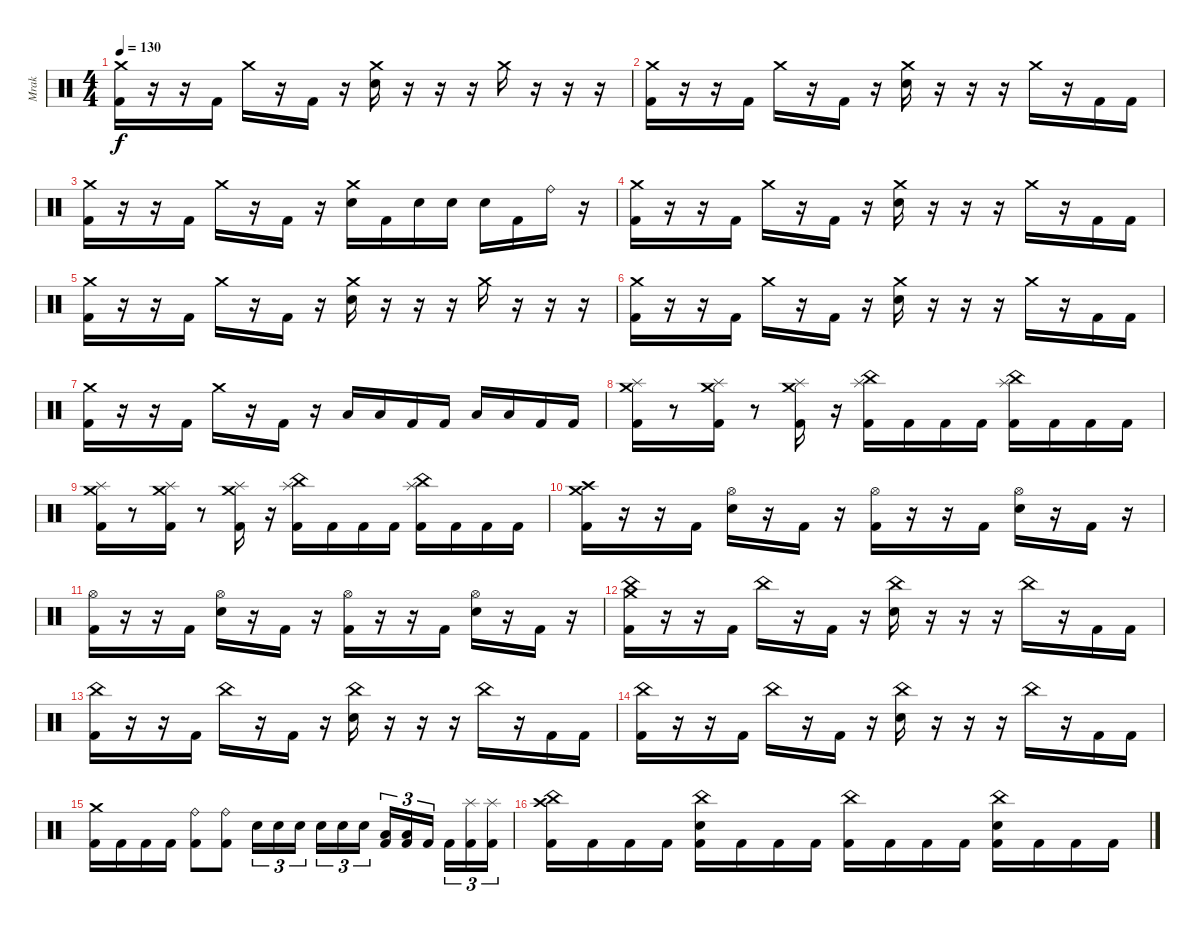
\track ("Mrak" "Mrak") {instrument percussion}
\staff {score}
\articulation defaults
\ts (4 4)
\tempo 130
\clef neutral
\ks c
("Crash medium (hit)" "Kick (hit) 2").16{dy f} r.16 r.16 "Kick (hit) 2".16 "Crash medium (hit)".16 r.16 "Kick (hit) 2".16 r.16 ("Crash medium (hit)" "Electric Snare (hit)").16 r.16 r.16 r.16 "Crash medium (hit)".16 r.16 r.16 r.16 |
("Crash medium (hit)" "Kick (hit) 2").16 r.16 r.16 "Kick (hit) 2".16 "Crash medium (hit)".16 r.16 "Kick (hit) 2".16 r.16 ("Crash medium (hit)" "Electric Snare (hit)").16 r.16 r.16 r.16 "Crash medium (hit)".16 r.16 "Kick (hit) 2".16 "Kick (hit) 2".16 |
("Crash medium (hit)" "Kick (hit) 2").16 r.16 r.16 "Kick (hit) 2".16 "Crash medium (hit)".16 r.16 "Kick (hit) 2".16 r.16 ("Crash medium (hit)" "Electric Snare (hit)").16 "Kick (hit) 2".16 "Electric Snare (hit)".16 "Electric Snare (hit)".16 "Electric Snare (hit)".16 "Kick (hit) 2".16 "Ride (bell)".16 r.16 |
("Crash medium (hit)" "Kick (hit) 2").16 r.16 r.16 "Kick (hit) 2".16 "Crash medium (hit)".16 r.16 "Kick (hit) 2".16 r.16 ("Crash medium (hit)" "Electric Snare (hit)").16 r.16 r.16 r.16 "Crash medium (hit)".16 r.16 "Kick (hit) 2".16 "Kick (hit) 2".16 |
("Crash medium (hit)" "Kick (hit) 2").16 r.16 r.16 "Kick (hit) 2".16 "Crash medium (hit)".16 r.16 "Kick (hit) 2".16 r.16 ("Crash medium (hit)" "Electric Snare (hit)").16 r.16 r.16 r.16 "Crash medium (hit)".16 r.16 r.16 r.16 |
("Crash medium (hit)" "Kick (hit) 2").16 r.16 r.16 "Kick (hit) 2".16 "Crash medium (hit)".16 r.16 "Kick (hit) 2".16 r.16 ("Crash medium (hit)" "Electric Snare (hit)").16 r.16 r.16 r.16 "Crash medium (hit)".16 r.16 "Kick (hit) 2".16 "Kick (hit) 2".16 |
("Crash medium (hit)" "Kick (hit) 2").16 r.16 r.16 "Kick (hit) 2".16 "Crash medium (hit)".16 r.16 "Kick (hit) 2".16 r.16 "Low Tom (hit)".16 "Low Tom (hit)".16 "Kick (hit) 2".16 "Kick (hit) 2".16 "Low Floor Tom (hit)".16 "Low Floor Tom (hit)".16 "Kick (hit) 2".16 "Kick (hit) 2".16 |
("Crash medium (hit)" "Splash (hit)" "Kick (hit) 2").16 r.8 ("Crash medium (hit)" "Splash (hit)" "Kick (hit) 2").16 r.8 ("Crash medium (hit)" "Splash (hit)" "Kick (hit) 2").16 r.16 ("China (hit)" "Splash (hit)" "Kick (hit) 2").16 "Kick (hit) 2".16 "Kick (hit) 2".16 "Kick (hit) 2".16 ("China (hit)" "Splash (hit)" "Kick (hit) 2").16 "Kick (hit) 2".16 "Kick (hit) 2".16 "Kick (hit) 2".16 |
("Crash medium (hit)" "Splash (hit)" "Kick (hit) 2").16 r.8 ("Crash medium (hit)" "Splash (hit)" "Kick (hit) 2").16 r.8 ("Crash medium (hit)" "Splash (hit)" "Kick (hit) 2").16 r.16 ("China (hit)" "Splash (hit)" "Kick (hit) 2").16 "Kick (hit) 2".16 "Kick (hit) 2".16 "Kick (hit) 2".16 ("China (hit)" "Splash (hit)" "Kick (hit) 2").16 "Kick (hit) 2".16 "Kick (hit) 2".16 "Kick (hit) 2".16 |
("Crash medium (hit)" "Crash high (hit)" "Kick (hit) 2").16 r.16 r.16 "Kick (hit) 2".16 ("Hi-Hat (open)" "Electric Snare (hit)").16 r.16 "Kick (hit) 2".16 r.16 ("Hi-Hat (open)" "Kick (hit) 2").16 r.16 r.16 "Kick (hit) 2".16 ("Hi-Hat (open)" "Electric Snare (hit)").16 r.16 "Kick (hit) 2".16 r.16 |
("Hi-Hat (open)" "Kick (hit) 2").16 r.16 r.16 "Kick (hit) 2".16 ("Hi-Hat (open)" "Electric Snare (hit)").16 r.16 "Kick (hit) 2".16 r.16 ("Hi-Hat (open)" "Kick (hit) 2").16 r.16 r.16 "Kick (hit) 2".16 ("Hi-Hat (open)" "Electric Snare (hit)").16 r.16 "Kick (hit) 2".16 r.16 |
("Crash medium (hit)" "China (hit)" "Kick (hit) 2").16 r.16 r.16 "Kick (hit) 2".16 "China (hit)".16 r.16 "Kick (hit) 2".16 r.16 ("China (hit)" "Electric Snare (hit)").16 r.16 r.16 r.16 "China (hit)".16 r.16 "Kick (hit) 2".16 "Kick (hit) 2".16 |
("China (hit)" "Kick (hit) 2").16 r.16 r.16 "Kick (hit) 2".16 "China (hit)".16 r.16 "Kick (hit) 2".16 r.16 ("China (hit)" "Electric Snare (hit)").16 r.16 r.16 r.16 "China (hit)".16 r.16 "Kick (hit) 2".16 "Kick (hit) 2".16 |
("China (hit)" "Kick (hit) 2").16 r.16 r.16 "Kick (hit) 2".16 "China (hit)".16 r.16 "Kick (hit) 2".16 r.16 ("China (hit)" "Electric Snare (hit)").16 r.16 r.16 r.16 "China (hit)".16 r.16 "Kick (hit) 2".16 "Kick (hit) 2".16 |
("Crash medium (hit)" "Kick (hit) 2").16 "Kick (hit) 2".16 "Kick (hit) 2".16 "Kick (hit) 2".16 ("Ride (bell)" "Kick (hit) 2").8 ("Ride (bell)" "Kick (hit) 2").8 "Electric Snare (hit)".16{tu (3 2)} "Electric Snare (hit)".16{tu (3 2)} "Electric Snare (hit)".16{tu (3 2) beam splitsecondary} "Electric Snare (hit)".16{tu (3 2)} "Electric Snare (hit)".16{tu (3 2)} "Electric Snare (hit)".16{tu (3 2)} ("Low Tom (hit)" "Kick (hit) 2").16{tu (3 2)} ("Low Tom (hit)" "Kick (hit) 2").16{tu (3 2)} "Kick (hit) 2".16{tu (3 2) beam splitsecondary} "Kick (hit) 2".16{tu (3 2)} ("Splash (hit)" "Kick (hit) 2").16{tu (3 2)} ("Splash (hit)" "Kick (hit) 2").16{tu (3 2)} |
("Crash high (hit)" "China (hit)" "Kick (hit) 2").16 "Kick (hit) 2".16 "Kick (hit) 2".16 "Kick (hit) 2".16 ("China (hit)" "Electric Snare (hit)" "Kick (hit) 2").16 "Kick (hit) 2".16 "Kick (hit) 2".16 "Kick (hit) 2".16 ("China (hit)" "Kick (hit) 2").16 "Kick (hit) 2".16 "Kick (hit) 2".16 "Kick (hit) 2".16 ("China (hit)" "Electric Snare (hit)" "Kick (hit) 2").16 "Kick (hit) 2".16 "Kick (hit) 2".16 "Kick (hit) 2".16
